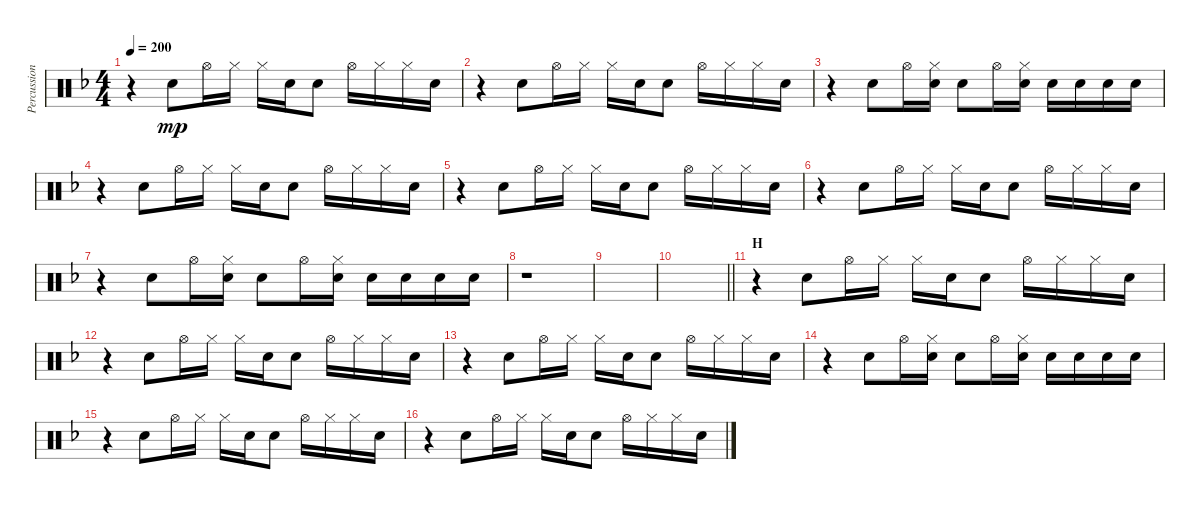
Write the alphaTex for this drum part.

\track ("Percussion (Tainaka Ritsu)" "Percussion") {instrument percussion}
\staff {score}
\articulation defaults
\ts (4 4)
\tempo 200
\clef neutral
\ks f
r.4{dy mp} "Electric Snare (hit)".8 "Hi-Hat (open)".16 "Hi-Hat (closed)".16 "Hi-Hat (closed)".16 "Electric Snare (hit)".16 "Electric Snare (hit)".8 "Hi-Hat (open)".16 "Hi-Hat (closed)".16 "Hi-Hat (closed)".16 "Electric Snare (hit)".16 |
r.4 "Electric Snare (hit)".8 "Hi-Hat (open)".16 "Hi-Hat (closed)".16 "Hi-Hat (closed)".16 "Electric Snare (hit)".16 "Electric Snare (hit)".8 "Hi-Hat (open)".16 "Hi-Hat (closed)".16 "Hi-Hat (closed)".16 "Electric Snare (hit)".16 |
r.4 "Electric Snare (hit)".8 "Hi-Hat (open)".16 ("Hi-Hat (closed)" "Electric Snare (hit)").16 "Electric Snare (hit)".8 "Hi-Hat (open)".16 ("Hi-Hat (closed)" "Electric Snare (hit)").16 "Electric Snare (hit)".16 "Electric Snare (hit)".16 "Electric Snare (hit)".16 "Electric Snare (hit)".16 |
r.4 "Electric Snare (hit)".8 "Hi-Hat (open)".16 "Hi-Hat (closed)".16 "Hi-Hat (closed)".16 "Electric Snare (hit)".16 "Electric Snare (hit)".8 "Hi-Hat (open)".16 "Hi-Hat (closed)".16 "Hi-Hat (closed)".16 "Electric Snare (hit)".16 |
r.4 "Electric Snare (hit)".8 "Hi-Hat (open)".16 "Hi-Hat (closed)".16 "Hi-Hat (closed)".16 "Electric Snare (hit)".16 "Electric Snare (hit)".8 "Hi-Hat (open)".16 "Hi-Hat (closed)".16 "Hi-Hat (closed)".16 "Electric Snare (hit)".16 |
r.4 "Electric Snare (hit)".8 "Hi-Hat (open)".16 "Hi-Hat (closed)".16 "Hi-Hat (closed)".16 "Electric Snare (hit)".16 "Electric Snare (hit)".8 "Hi-Hat (open)".16 "Hi-Hat (closed)".16 "Hi-Hat (closed)".16 "Electric Snare (hit)".16 |
r.4 "Electric Snare (hit)".8 "Hi-Hat (open)".16 ("Hi-Hat (closed)" "Electric Snare (hit)").16 "Electric Snare (hit)".8 "Hi-Hat (open)".16 ("Hi-Hat (closed)" "Electric Snare (hit)").16 "Electric Snare (hit)".16 "Electric Snare (hit)".16 "Electric Snare (hit)".16 "Electric Snare (hit)".16 |
r.1 |
|
\barLineRight lightlight
|
\section ("" "H")
r.4 "Electric Snare (hit)".8 "Hi-Hat (open)".16 "Hi-Hat (closed)".16 "Hi-Hat (closed)".16 "Electric Snare (hit)".16 "Electric Snare (hit)".8 "Hi-Hat (open)".16 "Hi-Hat (closed)".16 "Hi-Hat (closed)".16 "Electric Snare (hit)".16 |
r.4 "Electric Snare (hit)".8 "Hi-Hat (open)".16 "Hi-Hat (closed)".16 "Hi-Hat (closed)".16 "Electric Snare (hit)".16 "Electric Snare (hit)".8 "Hi-Hat (open)".16 "Hi-Hat (closed)".16 "Hi-Hat (closed)".16 "Electric Snare (hit)".16 |
r.4 "Electric Snare (hit)".8 "Hi-Hat (open)".16 "Hi-Hat (closed)".16 "Hi-Hat (closed)".16 "Electric Snare (hit)".16 "Electric Snare (hit)".8 "Hi-Hat (open)".16 "Hi-Hat (closed)".16 "Hi-Hat (closed)".16 "Electric Snare (hit)".16 |
r.4 "Electric Snare (hit)".8 "Hi-Hat (open)".16 ("Hi-Hat (closed)" "Electric Snare (hit)").16 "Electric Snare (hit)".8 "Hi-Hat (open)".16 ("Hi-Hat (closed)" "Electric Snare (hit)").16 "Electric Snare (hit)".16 "Electric Snare (hit)".16 "Electric Snare (hit)".16 "Electric Snare (hit)".16 |
r.4 "Electric Snare (hit)".8 "Hi-Hat (open)".16 "Hi-Hat (closed)".16 "Hi-Hat (closed)".16 "Electric Snare (hit)".16 "Electric Snare (hit)".8 "Hi-Hat (open)".16 "Hi-Hat (closed)".16 "Hi-Hat (closed)".16 "Electric Snare (hit)".16 |
r.4 "Electric Snare (hit)".8 "Hi-Hat (open)".16 "Hi-Hat (closed)".16 "Hi-Hat (closed)".16 "Electric Snare (hit)".16 "Electric Snare (hit)".8 "Hi-Hat (open)".16 "Hi-Hat (closed)".16 "Hi-Hat (closed)".16 "Electric Snare (hit)".16
